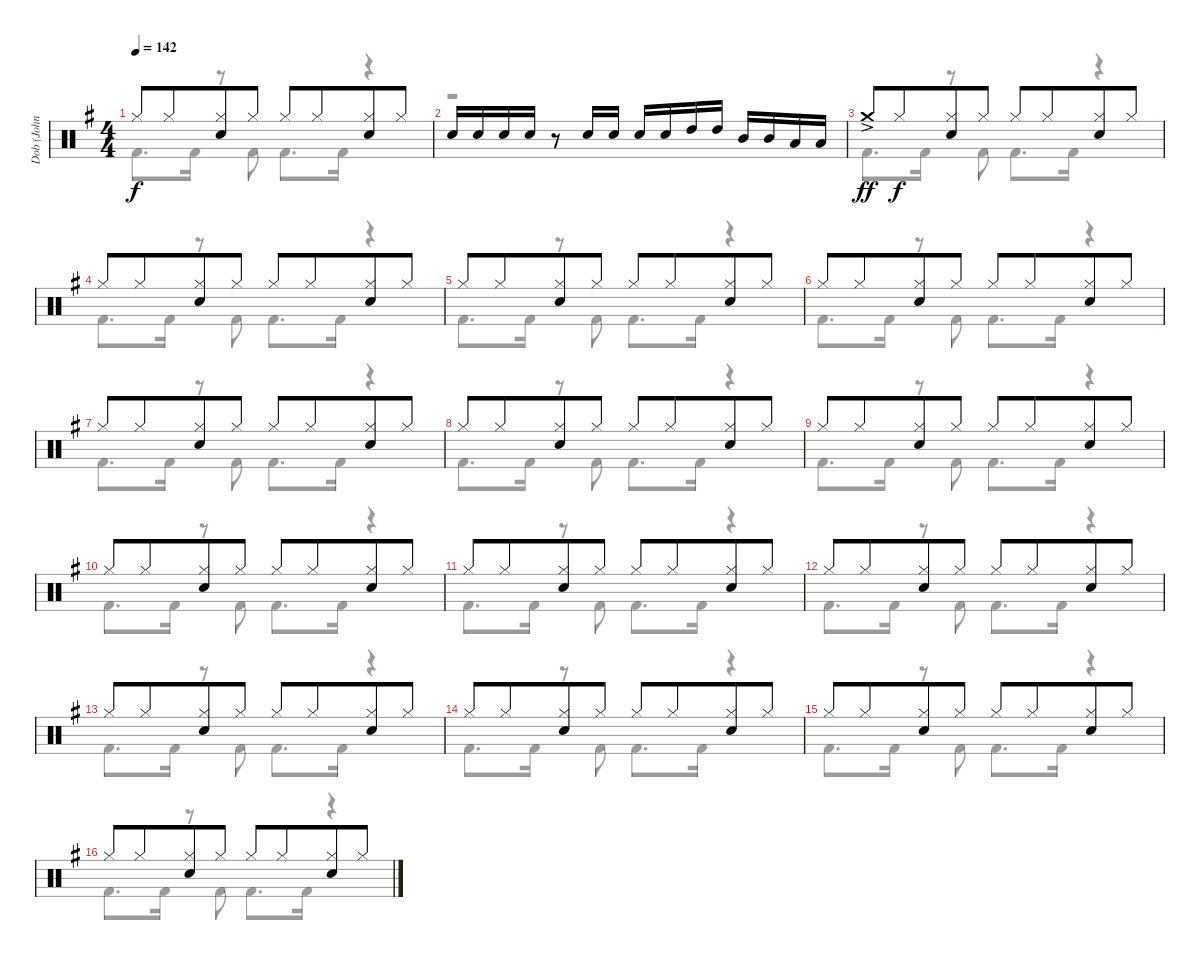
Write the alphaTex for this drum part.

\track ("Dob (John O'Reilly)" "Dob (John ") {instrument percussion}
\staff {score}
\articulation defaults
\voice
\ts (4 4)
\tempo 142
\clef neutral
\ks g "Hi-Hat (closed)".8{dy f} "Hi-Hat (closed)".8{beam merge}
("Hi-Hat (closed)" "Electric Snare (hit)").8 "Hi-Hat (closed)".8 "Hi-Hat (closed)".8 "Hi-Hat (closed)".8{beam merge} ("Hi-Hat (closed)" "Electric Snare (hit)").8 "Hi-Hat (closed)".8 |
"Electric Snare (hit)".16 "Electric Snare (hit)".16 "Electric Snare (hit)".16 "Electric Snare (hit)".16 r.8 "Electric Snare (hit)".16 "Electric Snare (hit)".16 "Electric Snare (hit)".16 "Electric Snare (hit)".16 "High Tom (hit)".16 "High Tom (hit)".16 "Mid Tom (hit)".16 "Mid Tom (hit)".16 "Low Tom (hit)".16 "Low Tom (hit)".16 |
"Crash medium (hit)"{ac}.8{dy ff} "Hi-Hat (closed)".8{dy f beam merge} ("Hi-Hat (closed)" "Electric Snare (hit)").8 "Hi-Hat (closed)".8 "Hi-Hat (closed)".8 "Hi-Hat (closed)".8{beam merge} ("Hi-Hat (closed)" "Electric Snare (hit)").8 "Hi-Hat (closed)".8 |
"Hi-Hat (closed)".8 "Hi-Hat (closed)".8{beam merge} ("Hi-Hat (closed)" "Electric Snare (hit)").8 "Hi-Hat (closed)".8 "Hi-Hat (closed)".8 "Hi-Hat (closed)".8{beam merge} ("Hi-Hat (closed)" "Electric Snare (hit)").8 "Hi-Hat (closed)".8 |
"Hi-Hat (closed)".8 "Hi-Hat (closed)".8{beam merge} ("Hi-Hat (closed)" "Electric Snare (hit)").8 "Hi-Hat (closed)".8 "Hi-Hat (closed)".8 "Hi-Hat (closed)".8{beam merge} ("Hi-Hat (closed)" "Electric Snare (hit)").8 "Hi-Hat (closed)".8 |
"Hi-Hat (closed)".8 "Hi-Hat (closed)".8{beam merge} ("Hi-Hat (closed)" "Electric Snare (hit)").8 "Hi-Hat (closed)".8 "Hi-Hat (closed)".8 "Hi-Hat (closed)".8{beam merge} ("Hi-Hat (closed)" "Electric Snare (hit)").8 "Hi-Hat (closed)".8 |
"Hi-Hat (closed)".8 "Hi-Hat (closed)".8{beam merge} ("Hi-Hat (closed)" "Electric Snare (hit)").8 "Hi-Hat (closed)".8 "Hi-Hat (closed)".8 "Hi-Hat (closed)".8{beam merge} ("Hi-Hat (closed)" "Electric Snare (hit)").8 "Hi-Hat (closed)".8 |
"Hi-Hat (closed)".8 "Hi-Hat (closed)".8{beam merge} ("Hi-Hat (closed)" "Electric Snare (hit)").8 "Hi-Hat (closed)".8 "Hi-Hat (closed)".8 "Hi-Hat (closed)".8{beam merge} ("Hi-Hat (closed)" "Electric Snare (hit)").8 "Hi-Hat (closed)".8 |
"Hi-Hat (closed)".8 "Hi-Hat (closed)".8{beam merge} ("Hi-Hat (closed)" "Electric Snare (hit)").8 "Hi-Hat (closed)".8 "Hi-Hat (closed)".8 "Hi-Hat (closed)".8{beam merge} ("Hi-Hat (closed)" "Electric Snare (hit)").8 "Hi-Hat (closed)".8 |
"Hi-Hat (closed)".8 "Hi-Hat (closed)".8{beam merge} ("Hi-Hat (closed)" "Electric Snare (hit)").8 "Hi-Hat (closed)".8 "Hi-Hat (closed)".8 "Hi-Hat (closed)".8{beam merge} ("Hi-Hat (closed)" "Electric Snare (hit)").8 "Hi-Hat (closed)".8 |
"Hi-Hat (closed)".8 "Hi-Hat (closed)".8{beam merge} ("Hi-Hat (closed)" "Electric Snare (hit)").8 "Hi-Hat (closed)".8 "Hi-Hat (closed)".8 "Hi-Hat (closed)".8{beam merge} ("Hi-Hat (closed)" "Electric Snare (hit)").8 "Hi-Hat (closed)".8 |
"Hi-Hat (closed)".8 "Hi-Hat (closed)".8{beam merge} ("Hi-Hat (closed)" "Electric Snare (hit)").8 "Hi-Hat (closed)".8 "Hi-Hat (closed)".8 "Hi-Hat (closed)".8{beam merge} ("Hi-Hat (closed)" "Electric Snare (hit)").8 "Hi-Hat (closed)".8 |
"Hi-Hat (closed)".8 "Hi-Hat (closed)".8{beam merge} ("Hi-Hat (closed)" "Electric Snare (hit)").8 "Hi-Hat (closed)".8 "Hi-Hat (closed)".8 "Hi-Hat (closed)".8{beam merge} ("Hi-Hat (closed)" "Electric Snare (hit)").8 "Hi-Hat (closed)".8 |
"Hi-Hat (closed)".8 "Hi-Hat (closed)".8{beam merge} ("Hi-Hat (closed)" "Electric Snare (hit)").8 "Hi-Hat (closed)".8 "Hi-Hat (closed)".8 "Hi-Hat (closed)".8{beam merge} ("Hi-Hat (closed)" "Electric Snare (hit)").8 "Hi-Hat (closed)".8 |
"Hi-Hat (closed)".8 "Hi-Hat (closed)".8{beam merge} ("Hi-Hat (closed)" "Electric Snare (hit)").8 "Hi-Hat (closed)".8 "Hi-Hat (closed)".8 "Hi-Hat (closed)".8{beam merge} ("Hi-Hat (closed)" "Electric Snare (hit)").8 "Hi-Hat (closed)".8 |
"Hi-Hat (closed)".8 "Hi-Hat (closed)".8{beam merge} ("Hi-Hat (closed)" "Electric Snare (hit)").8 "Hi-Hat (closed)".8 "Hi-Hat (closed)".8 "Hi-Hat (closed)".8{beam merge} ("Hi-Hat (closed)" "Electric Snare (hit)").8 "Hi-Hat (closed)".8
\voice
\clef neutral
\ottava regular
\simile none
\ks g "Kick (hit) 2".8{d dy f} "Kick (hit) 2".16
r.8 "Kick (hit) 2".8 "Kick (hit) 2".8{d} "Kick (hit) 2".16 r.4 |
r.1 |
"Kick (hit) 2".8{d} "Kick (hit) 2".16 r.8 "Kick (hit) 2".8 "Kick (hit) 2".8{d} "Kick (hit) 2".16 r.4 |
"Kick (hit) 2".8{d} "Kick (hit) 2".16 r.8 "Kick (hit) 2".8 "Kick (hit) 2".8{d} "Kick (hit) 2".16 r.4 |
"Kick (hit) 2".8{d} "Kick (hit) 2".16 r.8 "Kick (hit) 2".8 "Kick (hit) 2".8{d} "Kick (hit) 2".16 r.4 |
"Kick (hit) 2".8{d} "Kick (hit) 2".16 r.8 "Kick (hit) 2".8 "Kick (hit) 2".8{d} "Kick (hit) 2".16 r.4 |
"Kick (hit) 2".8{d} "Kick (hit) 2".16 r.8 "Kick (hit) 2".8 "Kick (hit) 2".8{d} "Kick (hit) 2".16 r.4 |
"Kick (hit) 2".8{d} "Kick (hit) 2".16 r.8 "Kick (hit) 2".8 "Kick (hit) 2".8{d} "Kick (hit) 2".16 r.4 |
"Kick (hit) 2".8{d} "Kick (hit) 2".16 r.8 "Kick (hit) 2".8 "Kick (hit) 2".8{d} "Kick (hit) 2".16 r.4 |
"Kick (hit) 2".8{d} "Kick (hit) 2".16 r.8 "Kick (hit) 2".8 "Kick (hit) 2".8{d} "Kick (hit) 2".16 r.4 |
"Kick (hit) 2".8{d} "Kick (hit) 2".16 r.8 "Kick (hit) 2".8 "Kick (hit) 2".8{d} "Kick (hit) 2".16 r.4 |
"Kick (hit) 2".8{d} "Kick (hit) 2".16 r.8 "Kick (hit) 2".8 "Kick (hit) 2".8{d} "Kick (hit) 2".16 r.4 |
"Kick (hit) 2".8{d} "Kick (hit) 2".16 r.8 "Kick (hit) 2".8 "Kick (hit) 2".8{d} "Kick (hit) 2".16 r.4 |
"Kick (hit) 2".8{d} "Kick (hit) 2".16 r.8 "Kick (hit) 2".8 "Kick (hit) 2".8{d} "Kick (hit) 2".16 r.4 |
"Kick (hit) 2".8{d} "Kick (hit) 2".16 r.8 "Kick (hit) 2".8 "Kick (hit) 2".8{d} "Kick (hit) 2".16 r.4 |
"Kick (hit) 2".8{d} "Kick (hit) 2".16 r.8 "Kick (hit) 2".8 "Kick (hit) 2".8{d} "Kick (hit) 2".16 r.4
